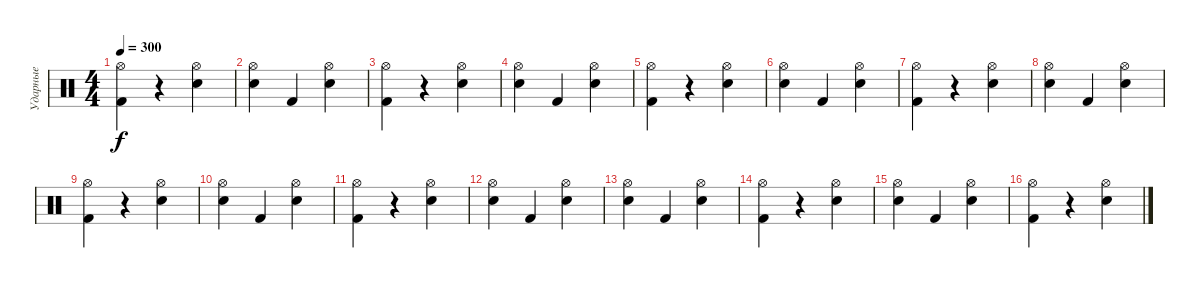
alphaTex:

\track ("Ударные" "Ударные") {instrument percussion}
\staff
\articulation defaults
\ts (4 4)
\tempo 300
\clef neutral
\ks c
("Hi-Hat (open)" "Kick (hit) 2").4{dy f} r.4 ("Electric Snare (hit)" "Hi-Hat (open)").4 |
("Snare (hit)" "Hi-Hat (open)").4 "Kick (hit) 2".4 ("Electric Snare (hit)" "Hi-Hat (open)").4 |
("Hi-Hat (open)" "Kick (hit) 2").4 r.4 ("Electric Snare (hit)" "Hi-Hat (open)").4 |
("Snare (hit)" "Hi-Hat (open)").4 "Kick (hit) 2".4 ("Electric Snare (hit)" "Hi-Hat (open)").4 |
("Hi-Hat (open)" "Kick (hit) 2").4 r.4 ("Electric Snare (hit)" "Hi-Hat (open)").4 |
("Snare (hit)" "Hi-Hat (open)").4 "Kick (hit) 2".4 ("Electric Snare (hit)" "Hi-Hat (open)").4 |
("Hi-Hat (open)" "Kick (hit) 2").4 r.4 ("Electric Snare (hit)" "Hi-Hat (open)").4 |
("Snare (hit)" "Hi-Hat (open)").4 "Kick (hit) 2".4 ("Electric Snare (hit)" "Hi-Hat (open)").4 |
("Hi-Hat (open)" "Kick (hit) 2").4 r.4 ("Electric Snare (hit)" "Hi-Hat (open)").4 |
("Snare (hit)" "Hi-Hat (open)").4 "Kick (hit) 2".4 ("Electric Snare (hit)" "Hi-Hat (open)").4 |
("Hi-Hat (open)" "Kick (hit) 2").4 r.4 ("Electric Snare (hit)" "Hi-Hat (open)").4 |
("Snare (hit)" "Hi-Hat (open)").4 "Kick (hit) 2".4 ("Electric Snare (hit)" "Hi-Hat (open)").4 |
("Snare (hit)" "Hi-Hat (open)").4 "Kick (hit) 2".4 ("Electric Snare (hit)" "Hi-Hat (open)").4 |
("Hi-Hat (open)" "Kick (hit) 2").4 r.4 ("Electric Snare (hit)" "Hi-Hat (open)").4 |
("Snare (hit)" "Hi-Hat (open)").4 "Kick (hit) 2".4 ("Electric Snare (hit)" "Hi-Hat (open)").4 |
("Hi-Hat (open)" "Kick (hit) 2").4 r.4 ("Electric Snare (hit)" "Hi-Hat (open)").4
